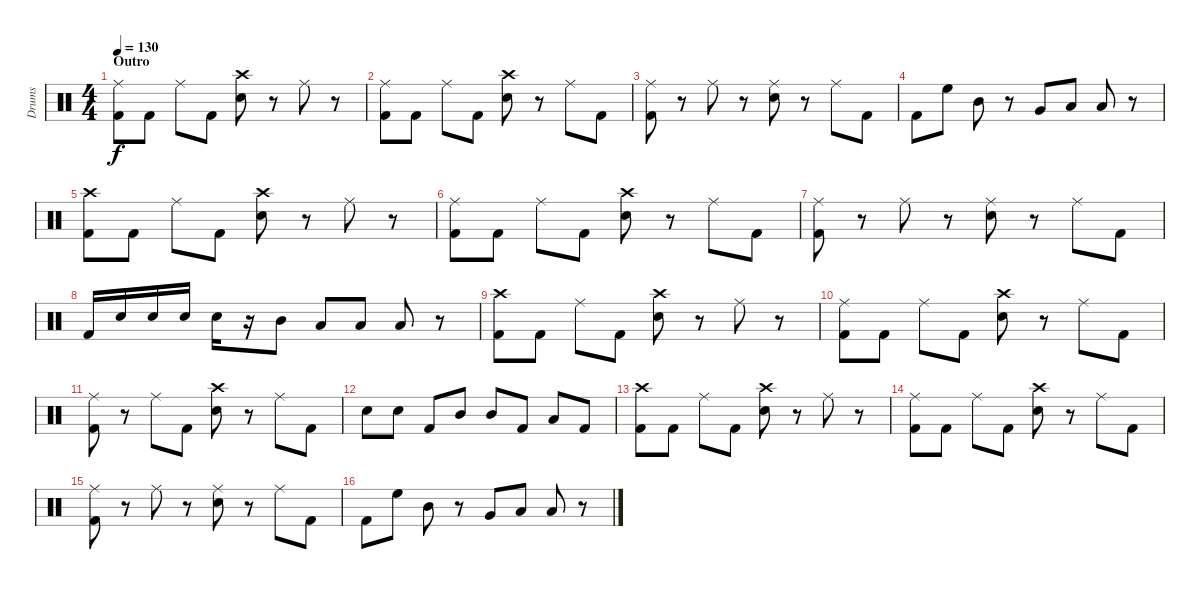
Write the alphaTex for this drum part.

\track ("Drums" "Drums") {instrument percussion}
\staff {score}
\articulation defaults
\ts (4 4)
\section ("" "Outro")
\tempo 130
\clef neutral
\ks c
("Ride (middle)" "Kick (hit) 2").8{dy f} "Kick (hit) 2".8 "Ride (middle)".8 "Kick (hit) 2".8 ("Crash high (hit)" "Snare (hit) 2").8 r.8 "Ride (middle)".8 r.8 |
("Ride (middle)" "Kick (hit) 2").8 "Kick (hit) 2".8 "Ride (middle)".8 "Kick (hit) 2".8 ("Crash high (hit)" "Snare (hit) 2").8 r.8 "Ride (middle)".8 "Kick (hit) 2".8 |
("Ride (middle)" "Kick (hit) 2").8 r.8 "Ride (middle)".8 r.8 ("Ride (middle)" "Snare (hit) 2").8 r.8 "Ride (middle)".8 "Kick (hit) 2".8 |
"Kick (hit) 2".8 "High Floor Tom (hit)".8 "Mid Tom (hit)".8 r.8 "Very Low Tom (hit)".8 "Low Floor Tom (hit)".8 "Low Floor Tom (hit)".8 r.8 |
("Crash high (hit)" "Kick (hit) 2").8 "Kick (hit) 2".8 "Ride (middle)".8 "Kick (hit) 2".8 ("Crash high (hit)" "Snare (hit) 2").8 r.8 "Ride (middle)".8 r.8 |
("Ride (middle)" "Kick (hit) 2").8 "Kick (hit) 2".8 "Ride (middle)".8 "Kick (hit) 2".8 ("Crash high (hit)" "Snare (hit) 2").8 r.8 "Ride (middle)".8 "Kick (hit) 2".8 |
("Ride (middle)" "Kick (hit) 2").8 r.8 "Ride (middle)".8 r.8 ("Ride (middle)" "Snare (hit) 2").8 r.8 "Ride (middle)".8 "Kick (hit) 2".8 |
"Kick (hit) 2".16 "Snare (hit) 2".16 "Snare (hit) 2".16 "Snare (hit) 2".16 "Snare (hit) 2".16 r.16 "Mid Tom (hit)".8 "Low Tom (hit)".8 "Low Tom (hit)".8 "Low Floor Tom (hit)".8 r.8 |
("Crash high (hit)" "Kick (hit) 2").8 "Kick (hit) 2".8 "Ride (middle)".8 "Kick (hit) 2".8 ("Crash high (hit)" "Snare (hit) 2").8 r.8 "Ride (middle)".8 r.8 |
("Ride (middle)" "Kick (hit) 2").8 "Kick (hit) 2".8 "Ride (middle)".8 "Kick (hit) 2".8 ("Crash high (hit)" "Snare (hit) 2").8 r.8 "Ride (middle)".8 "Kick (hit) 2".8 |
("Ride (middle)" "Kick (hit) 2").8 r.8 "Ride (middle)".8 "Kick (hit) 2".8 ("Crash high (hit)" "Snare (hit) 2").8 r.8 "Ride (middle)".8 "Kick (hit) 2".8 |
"Snare (hit) 2".8 "Snare (hit) 2".8 "Kick (hit) 2".8 "Mid Tom (hit)".8 "Mid Tom (hit)".8 "Kick (hit) 2".8 "Low Tom (hit)".8 "Kick (hit) 2".8 |
("Crash high (hit)" "Kick (hit) 2").8 "Kick (hit) 2".8 "Ride (middle)".8 "Kick (hit) 2".8 ("Crash high (hit)" "Snare (hit) 2").8 r.8 "Ride (middle)".8 r.8 |
("Ride (middle)" "Kick (hit) 2").8 "Kick (hit) 2".8 "Ride (middle)".8 "Kick (hit) 2".8 ("Crash high (hit)" "Snare (hit) 2").8 r.8 "Ride (middle)".8 "Kick (hit) 2".8 |
("Ride (middle)" "Kick (hit) 2").8 r.8 "Ride (middle)".8 r.8 ("Ride (middle)" "Snare (hit) 2").8 r.8 "Ride (middle)".8 "Kick (hit) 2".8 |
"Kick (hit) 2".8 "High Floor Tom (hit)".8 "Mid Tom (hit)".8 r.8 "Very Low Tom (hit)".8 "Low Floor Tom (hit)".8 "Low Floor Tom (hit)".8 r.8
